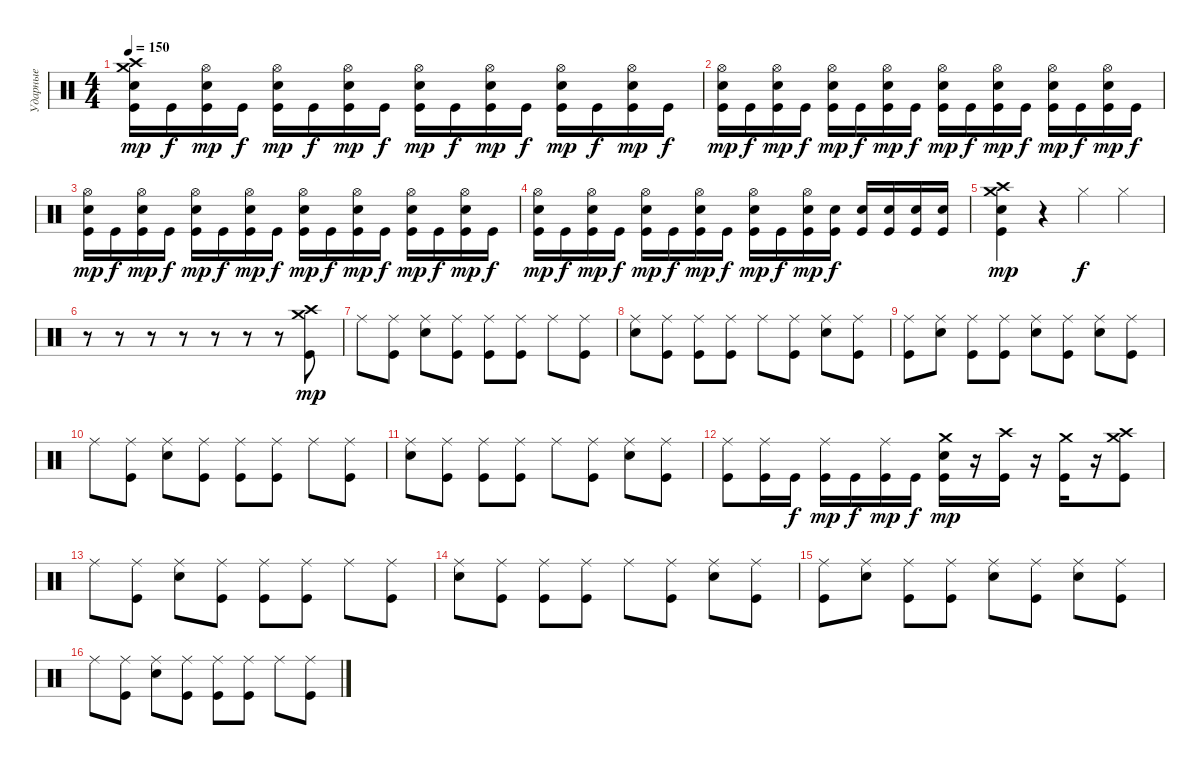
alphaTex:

\track ("Ударные" "Ударные") {instrument percussion}
\staff {score}
\articulation defaults
\ts (4 4)
\tempo 150
\clef neutral
\ks c
("Crash medium (hit)" "Crash high (hit)" "Electric Snare (hit)" "Kick (hit)").16{dy mp} "Kick (hit)".16{dy f} ("Hi-Hat (open)" "Electric Snare (hit)" "Kick (hit)").16{dy mp} "Kick (hit)".16{dy f} ("Hi-Hat (open)" "Electric Snare (hit)" "Kick (hit)").16{dy mp} "Kick (hit)".16{dy f} ("Hi-Hat (open)" "Electric Snare (hit)" "Kick (hit)").16{dy mp} "Kick (hit)".16{dy f} ("Hi-Hat (open)" "Electric Snare (hit)" "Kick (hit)").16{dy mp} "Kick (hit)".16{dy f} ("Hi-Hat (open)" "Electric Snare (hit)" "Kick (hit)").16{dy mp} "Kick (hit)".16{dy f} ("Hi-Hat (open)" "Electric Snare (hit)" "Kick (hit)").16{dy mp} "Kick (hit)".16{dy f} ("Hi-Hat (open)" "Electric Snare (hit)" "Kick (hit)").16{dy mp} "Kick (hit)".16{dy f} |
("Hi-Hat (open)" "Electric Snare (hit)" "Kick (hit)").16{dy mp} "Kick (hit)".16{dy f} ("Hi-Hat (open)" "Electric Snare (hit)" "Kick (hit)").16{dy mp} "Kick (hit)".16{dy f} ("Hi-Hat (open)" "Electric Snare (hit)" "Kick (hit)").16{dy mp} "Kick (hit)".16{dy f} ("Hi-Hat (open)" "Electric Snare (hit)" "Kick (hit)").16{dy mp} "Kick (hit)".16{dy f} ("Hi-Hat (open)" "Electric Snare (hit)" "Kick (hit)").16{dy mp} "Kick (hit)".16{dy f} ("Hi-Hat (open)" "Electric Snare (hit)" "Kick (hit)").16{dy mp} "Kick (hit)".16{dy f} ("Hi-Hat (open)" "Electric Snare (hit)" "Kick (hit)").16{dy mp} "Kick (hit)".16{dy f} ("Hi-Hat (open)" "Electric Snare (hit)" "Kick (hit)").16{dy mp} "Kick (hit)".16{dy f} |
("Hi-Hat (open)" "Electric Snare (hit)" "Kick (hit)").16{dy mp} "Kick (hit)".16{dy f} ("Hi-Hat (open)" "Electric Snare (hit)" "Kick (hit)").16{dy mp} "Kick (hit)".16{dy f} ("Hi-Hat (open)" "Electric Snare (hit)" "Kick (hit)").16{dy mp} "Kick (hit)".16{dy f} ("Hi-Hat (open)" "Electric Snare (hit)" "Kick (hit)").16{dy mp} "Kick (hit)".16{dy f} ("Hi-Hat (open)" "Electric Snare (hit)" "Kick (hit)").16{dy mp} "Kick (hit)".16{dy f} ("Hi-Hat (open)" "Electric Snare (hit)" "Kick (hit)").16{dy mp} "Kick (hit)".16{dy f} ("Hi-Hat (open)" "Electric Snare (hit)" "Kick (hit)").16{dy mp} "Kick (hit)".16{dy f} ("Hi-Hat (open)" "Electric Snare (hit)" "Kick (hit)").16{dy mp} "Kick (hit)".16{dy f} |
("Hi-Hat (open)" "Electric Snare (hit)" "Kick (hit)").16{dy mp} "Kick (hit)".16{dy f} ("Hi-Hat (open)" "Electric Snare (hit)" "Kick (hit)").16{dy mp} "Kick (hit)".16{dy f} ("Hi-Hat (open)" "Electric Snare (hit)" "Kick (hit)").16{dy mp} "Kick (hit)".16{dy f} ("Hi-Hat (open)" "Electric Snare (hit)" "Kick (hit)").16{dy mp} "Kick (hit)".16{dy f} ("Hi-Hat (open)" "Electric Snare (hit)" "Kick (hit)").16{dy mp} "Kick (hit)".16{dy f} ("Hi-Hat (open)" "Electric Snare (hit)" "Kick (hit)").16{dy mp} ("Electric Snare (hit)" "Kick (hit)").16{dy f} ("Electric Snare (hit)" "Kick (hit)").16 ("Electric Snare (hit)" "Kick (hit)").16 ("Electric Snare (hit)" "Kick (hit)").16 ("Electric Snare (hit)" "Kick (hit)").16 |
("Crash medium (hit)" "Crash high (hit)" "Electric Snare (hit)" "Kick (hit)").4{dy mp} r.4 "Hi-Hat (closed)".4{dy f} "Hi-Hat (closed)".4 |
r.8 r.8 r.8 r.8 r.8 r.8 r.8 ("Crash medium (hit)" "Crash high (hit)" "Kick (hit)").8{dy mp} |
"Ride (middle)".8 ("Ride (middle)" "Kick (hit)").8 ("Ride (middle)" "Electric Snare (hit)").8 ("Ride (middle)" "Kick (hit)").8 ("Ride (middle)" "Kick (hit)").8 ("Ride (middle)" "Kick (hit)").8 "Ride (middle)".8 ("Ride (middle)" "Kick (hit)").8 |
("Ride (middle)" "Electric Snare (hit)").8 ("Ride (middle)" "Kick (hit)").8 ("Ride (middle)" "Kick (hit)").8 ("Ride (middle)" "Kick (hit)").8 "Ride (middle)".8 ("Ride (middle)" "Kick (hit)").8 ("Ride (middle)" "Electric Snare (hit)").8 ("Ride (middle)" "Kick (hit)").8 |
("Ride (middle)" "Kick (hit)").8 ("Ride (middle)" "Electric Snare (hit)").8 ("Ride (middle)" "Kick (hit)").8 ("Ride (middle)" "Kick (hit)").8 ("Ride (middle)" "Electric Snare (hit)").8 ("Ride (middle)" "Kick (hit)").8 ("Ride (middle)" "Electric Snare (hit)").8 ("Ride (middle)" "Kick (hit)").8 |
"Ride (middle)".8 ("Ride (middle)" "Kick (hit)").8 ("Ride (middle)" "Electric Snare (hit)").8 ("Ride (middle)" "Kick (hit)").8 ("Ride (middle)" "Kick (hit)").8 ("Ride (middle)" "Kick (hit)").8 "Ride (middle)".8 ("Ride (middle)" "Kick (hit)").8 |
("Ride (middle)" "Electric Snare (hit)").8 ("Ride (middle)" "Kick (hit)").8 ("Ride (middle)" "Kick (hit)").8 ("Ride (middle)" "Kick (hit)").8 "Ride (middle)".8 ("Ride (middle)" "Kick (hit)").8 ("Ride (middle)" "Electric Snare (hit)").8 ("Ride (middle)" "Kick (hit)").8 |
("Ride (middle)" "Kick (hit)").8 ("Ride (middle)" "Kick (hit)").16 "Kick (hit)".16{dy f} ("Ride (middle)" "Kick (hit)").16{dy mp} "Kick (hit)".16{dy f} ("Ride (middle)" "Kick (hit)").16{dy mp} "Kick (hit)".16{dy f} ("Crash medium (hit)" "Electric Snare (hit)" "Kick (hit)").16{dy mp} r.16 ("Crash high (hit)" "Kick (hit)").16 r.16 ("Crash medium (hit)" "Kick (hit)").16 r.16 ("Crash high (hit)" "Crash medium (hit)" "Kick (hit)").8 |
"Ride (middle)".8 ("Ride (middle)" "Kick (hit)").8 ("Ride (middle)" "Electric Snare (hit)").8 ("Ride (middle)" "Kick (hit)").8 ("Ride (middle)" "Kick (hit)").8 ("Ride (middle)" "Kick (hit)").8 "Ride (middle)".8 ("Ride (middle)" "Kick (hit)").8 |
("Ride (middle)" "Electric Snare (hit)").8 ("Ride (middle)" "Kick (hit)").8 ("Ride (middle)" "Kick (hit)").8 ("Ride (middle)" "Kick (hit)").8 "Ride (middle)".8 ("Ride (middle)" "Kick (hit)").8 ("Ride (middle)" "Electric Snare (hit)").8 ("Ride (middle)" "Kick (hit)").8 |
("Ride (middle)" "Kick (hit)").8 ("Ride (middle)" "Electric Snare (hit)").8 ("Ride (middle)" "Kick (hit)").8 ("Ride (middle)" "Kick (hit)").8 ("Ride (middle)" "Electric Snare (hit)").8 ("Ride (middle)" "Kick (hit)").8 ("Ride (middle)" "Electric Snare (hit)").8 ("Ride (middle)" "Kick (hit)").8 |
"Ride (middle)".8 ("Ride (middle)" "Kick (hit)").8 ("Ride (middle)" "Electric Snare (hit)").8 ("Ride (middle)" "Kick (hit)").8 ("Ride (middle)" "Kick (hit)").8 ("Ride (middle)" "Kick (hit)").8 "Ride (middle)".8 ("Ride (middle)" "Kick (hit)").8
